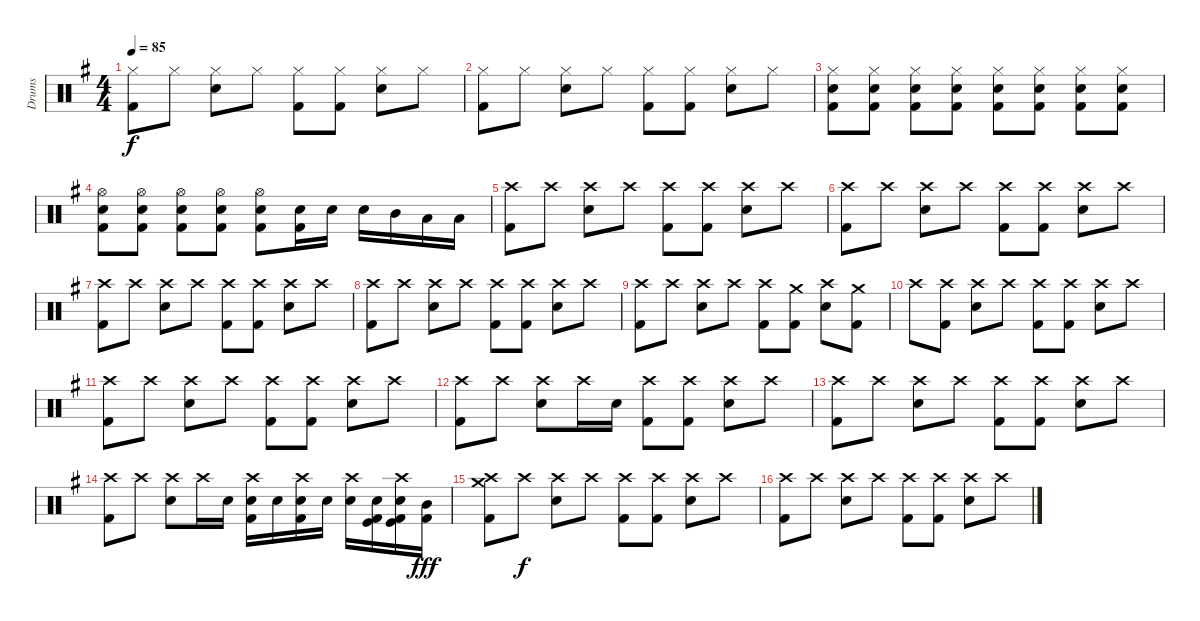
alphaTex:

\track ("Drums" "Drums") {instrument percussion}
\staff {score}
\articulation defaults
\ts (4 4)
\tempo 85
\clef neutral
\ks g
("Hi-Hat (closed)" "Kick (hit) 2").8{dy f} "Hi-Hat (closed)".8 ("Hi-Hat (closed)" "Snare (hit) 2").8 "Hi-Hat (closed)".8 ("Hi-Hat (closed)" "Kick (hit) 2").8 ("Hi-Hat (closed)" "Kick (hit) 2").8 ("Hi-Hat (closed)" "Snare (hit) 2").8 "Hi-Hat (closed)".8 |
("Hi-Hat (closed)" "Kick (hit) 2").8 "Hi-Hat (closed)".8 ("Hi-Hat (closed)" "Snare (hit) 2").8 "Hi-Hat (closed)".8 ("Hi-Hat (closed)" "Kick (hit) 2").8 ("Hi-Hat (closed)" "Kick (hit) 2").8 ("Hi-Hat (closed)" "Snare (hit) 2").8 "Hi-Hat (closed)".8 |
("Hi-Hat (closed)" "Snare (hit) 2" "Kick (hit) 2").8{volume 12} ("Hi-Hat (closed)" "Snare (hit) 2" "Kick (hit) 2").8{volume 15} ("Hi-Hat (closed)" "Snare (hit) 2" "Kick (hit) 2").8 ("Hi-Hat (closed)" "Snare (hit) 2" "Kick (hit) 2").8 ("Hi-Hat (closed)" "Snare (hit) 2" "Kick (hit) 2").8 ("Hi-Hat (closed)" "Snare (hit) 2" "Kick (hit) 2").8 ("Hi-Hat (closed)" "Snare (hit) 2" "Kick (hit) 2").8 ("Hi-Hat (closed)" "Snare (hit) 2" "Kick (hit) 2").8 |
("Hi-Hat (open)" "Snare (hit) 2" "Kick (hit) 2").8 ("Hi-Hat (open)" "Snare (hit) 2" "Kick (hit) 2").8 ("Hi-Hat (open)" "Snare (hit) 2" "Kick (hit) 2").8 ("Hi-Hat (open)" "Snare (hit) 2" "Kick (hit) 2").8 ("Hi-Hat (open)" "Snare (hit) 2" "Kick (hit) 2").8 ("Snare (hit) 2" "Kick (hit) 2").16 "Snare (hit) 2".16 "Snare (hit) 2".16 "Mid Tom (hit)".16 "Low Tom (hit)".16 "Low Tom (hit)".16 |
("Crash high (hit)" "Kick (hit) 2").8 "Crash high (hit)".8 ("Crash high (hit)" "Snare (hit) 2").8 "Crash high (hit)".8 ("Crash high (hit)" "Kick (hit) 2").8 ("Crash high (hit)" "Kick (hit) 2").8 ("Crash high (hit)" "Snare (hit) 2").8 "Crash high (hit)".8 |
("Crash high (hit)" "Kick (hit) 2").8 "Crash high (hit)".8 ("Crash high (hit)" "Snare (hit) 2").8 "Crash high (hit)".8 ("Crash high (hit)" "Kick (hit) 2").8 ("Crash high (hit)" "Kick (hit) 2").8 ("Crash high (hit)" "Snare (hit) 2").8 "Crash high (hit)".8 |
("Crash high (hit)" "Kick (hit) 2").8 "Crash high (hit)".8 ("Crash high (hit)" "Snare (hit) 2").8 "Crash high (hit)".8 ("Crash high (hit)" "Kick (hit) 2").8 ("Crash high (hit)" "Kick (hit) 2").8 ("Crash high (hit)" "Snare (hit) 2").8 "Crash high (hit)".8 |
("Crash high (hit)" "Kick (hit) 2").8 "Crash high (hit)".8 ("Crash high (hit)" "Snare (hit) 2").8 "Crash high (hit)".8 ("Crash high (hit)" "Kick (hit) 2").8 ("Crash high (hit)" "Kick (hit) 2").8 ("Crash high (hit)" "Snare (hit) 2").8 "Crash high (hit)".8 |
("Crash high (hit)" "Kick (hit) 2").8 "Crash high (hit)".8 ("Crash high (hit)" "Snare (hit) 2").8 "Crash high (hit)".8 ("Crash high (hit)" "Kick (hit) 2").8 ("Crash medium (hit)" "Kick (hit) 2").8 ("Crash high (hit)" "Snare (hit) 2").8 ("Crash medium (hit)" "Kick (hit) 2").8 |
"Crash high (hit)".8 ("Crash high (hit)" "Kick (hit) 2").8 ("Crash high (hit)" "Snare (hit) 2").8 "Crash high (hit)".8 ("Crash high (hit)" "Kick (hit) 2").8 ("Crash high (hit)" "Kick (hit) 2").8 ("Crash high (hit)" "Snare (hit) 2").8 "Crash high (hit)".8 |
("Crash high (hit)" "Kick (hit) 2").8 "Crash high (hit)".8 ("Crash high (hit)" "Snare (hit) 2").8 "Crash high (hit)".8 ("Crash high (hit)" "Kick (hit) 2").8 ("Crash high (hit)" "Kick (hit) 2").8 ("Crash high (hit)" "Snare (hit) 2").8 "Crash high (hit)".8 |
("Crash high (hit)" "Kick (hit) 2").8 "Crash high (hit)".8 ("Crash high (hit)" "Snare (hit) 2").8 "Crash high (hit)".16 "Snare (hit) 2".16 ("Crash high (hit)" "Kick (hit) 2").8 ("Crash high (hit)" "Kick (hit) 2").8 ("Crash high (hit)" "Snare (hit) 2").8 "Crash high (hit)".8 |
("Crash high (hit)" "Kick (hit) 2").8 "Crash high (hit)".8 ("Crash high (hit)" "Snare (hit) 2").8 "Crash high (hit)".8 ("Crash high (hit)" "Kick (hit) 2").8 ("Crash high (hit)" "Kick (hit) 2").8 ("Crash high (hit)" "Snare (hit) 2").8 "Crash high (hit)".8 |
("Crash high (hit)" "Kick (hit) 2").8 "Crash high (hit)".8 ("Crash high (hit)" "Snare (hit) 2").8 "Crash high (hit)".16 "Snare (hit) 2".16 ("Crash high (hit)" "Snare (hit) 2" "Kick (hit) 2").16 "Snare (hit) 2".16 ("Crash high (hit)" "Snare (hit) 2" "Kick (hit) 2").16 "Snare (hit) 2".16 ("Crash high (hit)" "Snare (hit) 2").16 ("Snare (hit) 2" "Kick (hit)" "Kick (hit) 2").16 ("Crash high (hit)" "Snare (hit) 2" "Kick (hit)" "Kick (hit) 2").16 ("Mid Tom (hit)" "Kick (hit) 2").16{dy fff} |
("Crash medium (hit)" "Crash high (hit)" "Kick (hit) 2").8 "Crash high (hit)".8{dy f} ("Crash high (hit)" "Snare (hit) 2").8 "Crash high (hit)".8 ("Crash high (hit)" "Kick (hit) 2").8 ("Crash high (hit)" "Kick (hit) 2").8 ("Crash high (hit)" "Snare (hit) 2").8 "Crash high (hit)".8 |
("Crash high (hit)" "Kick (hit) 2").8 "Crash high (hit)".8 ("Crash high (hit)" "Snare (hit) 2").8 "Crash high (hit)".8 ("Crash high (hit)" "Kick (hit) 2").8 ("Crash high (hit)" "Kick (hit) 2").8 ("Crash high (hit)" "Snare (hit) 2").8 "Crash high (hit)".8
